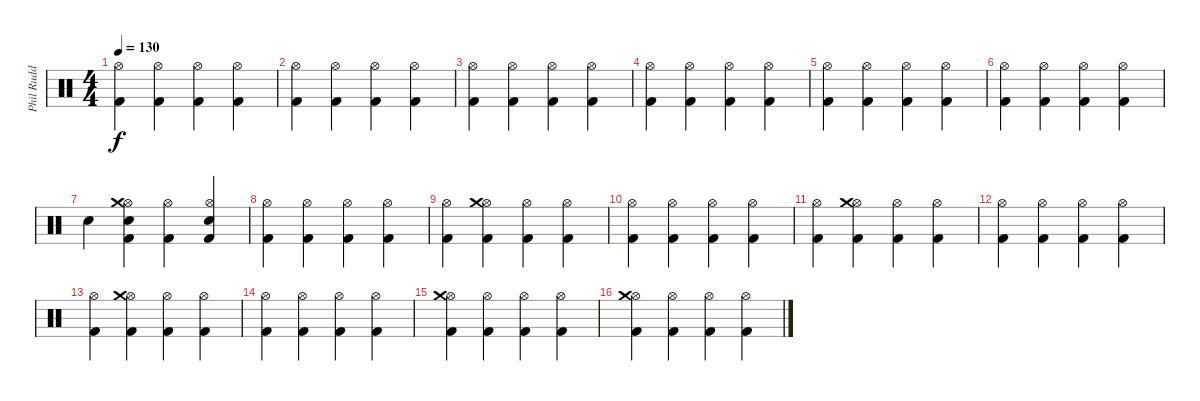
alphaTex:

\track ("Phil Rudd" "Phil Rudd") {instrument percussion}
\staff {score}
\articulation defaults
\ts (4 4)
\tempo 130
\clef neutral
\ks c
("Kick (hit) 2" "Hi-Hat (open)").4{dy f} ("Kick (hit) 2" "Hi-Hat (open)").4 ("Kick (hit) 2" "Hi-Hat (open)").4 ("Kick (hit) 2" "Hi-Hat (open)").4 |
("Kick (hit) 2" "Hi-Hat (open)").4 ("Kick (hit) 2" "Hi-Hat (open)").4 ("Kick (hit) 2" "Hi-Hat (open)").4 ("Kick (hit) 2" "Hi-Hat (open)").4 |
("Kick (hit) 2" "Hi-Hat (open)").4 ("Kick (hit) 2" "Hi-Hat (open)").4 ("Kick (hit) 2" "Hi-Hat (open)").4 ("Kick (hit) 2" "Hi-Hat (open)").4 |
("Kick (hit) 2" "Hi-Hat (open)").4 ("Kick (hit) 2" "Hi-Hat (open)").4 ("Kick (hit) 2" "Hi-Hat (open)").4 ("Kick (hit) 2" "Hi-Hat (open)").4 |
("Kick (hit) 2" "Hi-Hat (open)").4 ("Kick (hit) 2" "Hi-Hat (open)").4 ("Kick (hit) 2" "Hi-Hat (open)").4 ("Kick (hit) 2" "Hi-Hat (open)").4 |
("Kick (hit) 2" "Hi-Hat (open)").4 ("Kick (hit) 2" "Hi-Hat (open)").4 ("Kick (hit) 2" "Hi-Hat (open)").4 ("Kick (hit) 2" "Hi-Hat (open)").4 |
"Snare (hit)"{x}.4 ("Kick (hit) 2" "Hi-Hat (open)" "Crash medium (hit)" "Snare (hit) 2").4 ("Kick (hit) 2" "Hi-Hat (open)").4 ("Kick (hit) 2" "Hi-Hat (open)" "Snare (hit) 2").4 |
("Kick (hit) 2" "Hi-Hat (open)").4 ("Kick (hit) 2" "Hi-Hat (open)").4 ("Kick (hit) 2" "Hi-Hat (open)").4 ("Kick (hit) 2" "Hi-Hat (open)").4 |
("Kick (hit) 2" "Hi-Hat (open)").4 ("Kick (hit) 2" "Hi-Hat (open)" "Crash medium (hit)").4 ("Kick (hit) 2" "Hi-Hat (open)").4 ("Kick (hit) 2" "Hi-Hat (open)").4 |
("Kick (hit) 2" "Hi-Hat (open)").4 ("Kick (hit) 2" "Hi-Hat (open)").4 ("Kick (hit) 2" "Hi-Hat (open)").4 ("Kick (hit) 2" "Hi-Hat (open)").4 |
("Kick (hit) 2" "Hi-Hat (open)").4 ("Kick (hit) 2" "Hi-Hat (open)" "Crash medium (hit)").4 ("Kick (hit) 2" "Hi-Hat (open)").4 ("Kick (hit) 2" "Hi-Hat (open)").4 |
("Kick (hit) 2" "Hi-Hat (open)").4 ("Kick (hit) 2" "Hi-Hat (open)").4 ("Kick (hit) 2" "Hi-Hat (open)").4 ("Kick (hit) 2" "Hi-Hat (open)").4 |
("Kick (hit) 2" "Hi-Hat (open)").4 ("Kick (hit) 2" "Hi-Hat (open)" "Crash medium (hit)").4 ("Kick (hit) 2" "Hi-Hat (open)").4 ("Kick (hit) 2" "Hi-Hat (open)").4 |
("Kick (hit) 2" "Hi-Hat (open)").4 ("Kick (hit) 2" "Hi-Hat (open)").4 ("Kick (hit) 2" "Hi-Hat (open)").4 ("Kick (hit) 2" "Hi-Hat (open)").4 |
("Kick (hit) 2" "Hi-Hat (open)" "Crash medium (hit)").4 ("Kick (hit) 2" "Hi-Hat (open)").4 ("Kick (hit) 2" "Hi-Hat (open)").4 ("Kick (hit) 2" "Hi-Hat (open)").4 |
("Kick (hit) 2" "Hi-Hat (open)" "Crash medium (hit)").4 ("Kick (hit) 2" "Hi-Hat (open)").4 ("Kick (hit) 2" "Hi-Hat (open)").4 ("Kick (hit) 2" "Hi-Hat (open)").4
